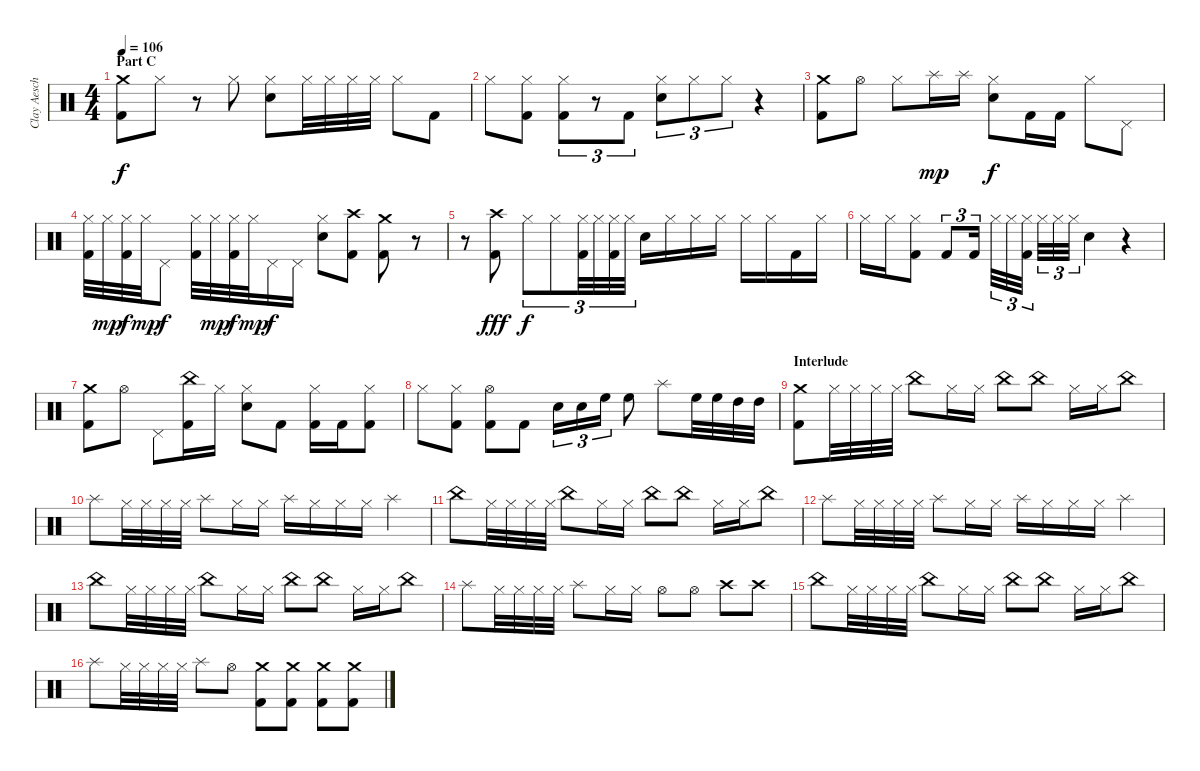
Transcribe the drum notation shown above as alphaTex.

\track ("Clay Aeschliman" "Clay Aesch") {instrument percussion}
\staff {score}
\articulation defaults
\ts (4 4)
\section ("" "Part C")
\tempo 106
\clef neutral
\ks c
("Crash medium (hit)" "Kick (hit) 2").8{dy f} "Hi-Hat (closed)".8 r.8 "Hi-Hat (closed)".8 ("Hi-Hat (closed)" "Snare (hit) 2").8 "Hi-Hat (closed)".32 "Hi-Hat (closed)".32 "Hi-Hat (closed)".32 "Hi-Hat (closed)".32 "Hi-Hat (closed)".8 "Kick (hit) 2".8 |
"Hi-Hat (closed)".8 ("Hi-Hat (closed)" "Kick (hit) 2").8 ("Hi-Hat (closed)" "Kick (hit) 2").8{tu (3 2)} r.8{tu (3 2)} "Kick (hit) 2".8{tu (3 2)} ("Hi-Hat (closed)" "Snare (hit) 2").8{tu (3 2)} "Hi-Hat (closed)".8{tu (3 2)} "Hi-Hat (closed)".8{tu (3 2)} r.4 |
("Crash medium (hit)" "Kick (hit) 2").8 "Hi-Hat (open)".8 "Hi-Hat (closed)".8 "Splash (hit)".16{dy mp} "Splash (hit)".16 ("Hi-Hat (closed)" "Snare (hit) 2").8{dy f} "Kick (hit) 2".16 "Kick (hit) 2".16 "Hi-Hat (closed)".8 "Pedal Hi-Hat (hit)".8 |
("Hi-Hat (closed)" "Kick (hit) 2").32 "Hi-Hat (closed)".32{dy mp} ("Hi-Hat (closed)" "Kick (hit) 2").32{dy f} "Hi-Hat (closed)".32{dy mp} "Pedal Hi-Hat (hit)".8{dy f} ("Hi-Hat (closed)" "Kick (hit) 2").32 "Hi-Hat (closed)".32{dy mp} ("Hi-Hat (closed)" "Kick (hit) 2").32{dy f} "Hi-Hat (closed)".32{dy mp} "Pedal Hi-Hat (hit)".16{dy f} "Pedal Hi-Hat (hit)".16 ("Hi-Hat (closed)" "Snare (hit) 2").8 ("Crash high (hit)" "Kick (hit) 2").8 ("Crash medium (hit)" "Kick (hit) 2").8 r.8 |
r.8 ("Crash high (hit)" "Kick (hit) 2").8{dy fff} "Hi-Hat (closed)".8{tu (3 2) dy f} "Hi-Hat (closed)".8{tu (3 2)} ("Hi-Hat (closed)" "Kick (hit) 2").32{tu (3 2)} "Hi-Hat (closed)".32{tu (3 2)} ("Hi-Hat (closed)" "Kick (hit) 2").32{tu (3 2)} "Hi-Hat (closed)".32{tu (3 2)} "Snare (hit) 2".16 "Hi-Hat (closed)".16 "Hi-Hat (closed)".16 "Hi-Hat (closed)".16 "Hi-Hat (closed)".16 "Hi-Hat (closed)".16 "Kick (hit) 2".16 "Hi-Hat (closed)".16 |
"Hi-Hat (closed)".16 "Hi-Hat (closed)".16 ("Hi-Hat (closed)" "Kick (hit) 2").8 "Kick (hit) 2".8{tu (3 2)} "Kick (hit) 2".16{tu (3 2)} "Hi-Hat (closed)".32{tu (3 2)} "Hi-Hat (closed)".32{tu (3 2)} ("Hi-Hat (closed)" "Kick (hit) 2").32{tu (3 2)} "Hi-Hat (closed)".32{tu (3 2)} "Hi-Hat (closed)".32{tu (3 2)} "Hi-Hat (closed)".32{tu (3 2)} "Snare (hit) 2".4 r.4 |
("Crash medium (hit)" "Kick (hit) 2").8 "Hi-Hat (open)".8 "Pedal Hi-Hat (hit)".8 ("China (hit)" "Kick (hit) 2").16 "Hi-Hat (closed)".16 ("Hi-Hat (closed)" "Snare (hit) 2").8 "Kick (hit) 2".8 ("Hi-Hat (closed)" "Kick (hit) 2").16 "Kick (hit) 2".16 ("Hi-Hat (closed)" "Kick (hit) 2").8 |
"Hi-Hat (closed)".8 ("Hi-Hat (closed)" "Kick (hit) 2").8 ("Hi-Hat (open)" "Kick (hit) 2").8 "Kick (hit) 2".8 "Snare (hit) 2".16{tu (3 2)} "Snare (hit) 2".16{tu (3 2)} "High Floor Tom (hit)".16{tu (3 2)} "High Floor Tom (hit)".8 "Splash (hit)".8 "High Floor Tom (hit)".32 "High Floor Tom (hit)".32 "High Tom (hit)".32 "High Tom (hit)".32 |
\section ("" "Interlude")
("Crash medium (hit)" "Kick (hit) 2").8 "Hi-Hat (closed)".32 "Hi-Hat (closed)".32 "Hi-Hat (closed)".32 "Hi-Hat (closed)".32 "China (hit)".8 "Hi-Hat (closed)".16 "Hi-Hat (closed)".16 "China (hit)".8 "China (hit)".8 "Hi-Hat (closed)".16 "Hi-Hat (closed)".16 "China (hit)".8 |
"Splash (hit)".8 "Hi-Hat (closed)".32 "Hi-Hat (closed)".32 "Hi-Hat (closed)".32 "Hi-Hat (closed)".32 "Splash (hit)".8 "Hi-Hat (closed)".16 "Hi-Hat (closed)".16 "Splash (hit)".16 "Hi-Hat (closed)".16 "Hi-Hat (closed)".16 "Hi-Hat (closed)".16 "Splash (hit)".4 |
"China (hit)".8 "Hi-Hat (closed)".32 "Hi-Hat (closed)".32 "Hi-Hat (closed)".32 "Hi-Hat (closed)".32 "China (hit)".8 "Hi-Hat (closed)".16 "Hi-Hat (closed)".16 "China (hit)".8 "China (hit)".8 "Hi-Hat (closed)".16 "Hi-Hat (closed)".16 "China (hit)".8 |
"Splash (hit)".8 "Hi-Hat (closed)".32 "Hi-Hat (closed)".32 "Hi-Hat (closed)".32 "Hi-Hat (closed)".32 "Splash (hit)".8 "Hi-Hat (closed)".16 "Hi-Hat (closed)".16 "Splash (hit)".16 "Hi-Hat (closed)".16 "Hi-Hat (closed)".16 "Hi-Hat (closed)".16 "Splash (hit)".4 |
"China (hit)".8 "Hi-Hat (closed)".32 "Hi-Hat (closed)".32 "Hi-Hat (closed)".32 "Hi-Hat (closed)".32 "China (hit)".8 "Hi-Hat (closed)".16 "Hi-Hat (closed)".16 "China (hit)".8 "China (hit)".8 "Hi-Hat (closed)".16 "Hi-Hat (closed)".16 "China (hit)".8 |
"Splash (hit)".8 "Hi-Hat (closed)".32 "Hi-Hat (closed)".32 "Hi-Hat (closed)".32 "Hi-Hat (closed)".32 "Splash (hit)".8 "Hi-Hat (closed)".16 "Hi-Hat (closed)".16 "Hi-Hat (open)".8 "Hi-Hat (open)".8 "Crash high (hit)".8 "Crash high (hit)".8 |
"China (hit)".8 "Hi-Hat (closed)".32 "Hi-Hat (closed)".32 "Hi-Hat (closed)".32 "Hi-Hat (closed)".32 "China (hit)".8 "Hi-Hat (closed)".16 "Hi-Hat (closed)".16 "China (hit)".8 "China (hit)".8 "Hi-Hat (closed)".16 "Hi-Hat (closed)".16 "China (hit)".8 |
"Splash (hit)".8 "Hi-Hat (closed)".32 "Hi-Hat (closed)".32 "Hi-Hat (closed)".32 "Hi-Hat (closed)".32 "Splash (hit)".8 "Hi-Hat (open)".8 ("Crash medium (hit)" "Kick (hit) 2").8 ("Crash medium (hit)" "Kick (hit) 2").8 ("Crash medium (hit)" "Kick (hit) 2").8 ("Crash medium (hit)" "Kick (hit) 2").8
